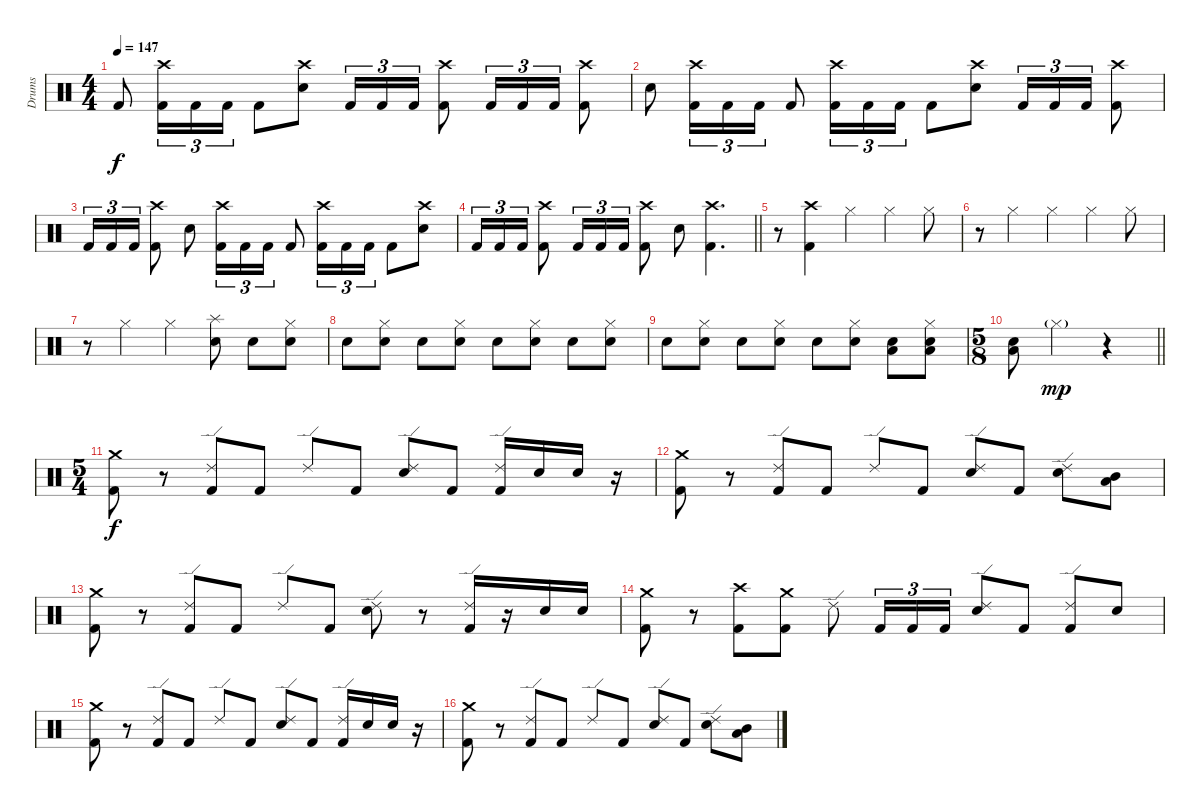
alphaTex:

\track ("Drums" "Drums") {instrument percussion}
\staff {score}
\articulation defaults
\ts (4 4)
\tempo 147
\clef neutral
\ks c "Kick (hit) 2".8{dy f}
("Crash high (hit)" "Kick (hit) 2").16{tu (3 2)} "Kick (hit) 2".16{tu (3 2)} "Kick (hit) 2".16{tu (3 2)} "Kick (hit) 2".8 ("Crash high (hit)" "Electric Snare (hit)").8 "Kick (hit) 2".16{tu (3 2)} "Kick (hit) 2".16{tu (3 2)} "Kick (hit) 2".16{tu (3 2)} ("Crash high (hit)" "Kick (hit) 2").8 "Kick (hit) 2".16{tu (3 2)} "Kick (hit) 2".16{tu (3 2)} "Kick (hit) 2".16{tu (3 2)} ("Crash high (hit)" "Kick (hit) 2").8 |
"Electric Snare (hit)".8 ("Crash high (hit)" "Kick (hit) 2").16{tu (3 2)} "Kick (hit) 2".16{tu (3 2)} "Kick (hit) 2".16{tu (3 2)} "Kick (hit) 2".8 ("Crash high (hit)" "Kick (hit) 2").16{tu (3 2)} "Kick (hit) 2".16{tu (3 2)} "Kick (hit) 2".16{tu (3 2)} "Kick (hit) 2".8 ("Crash high (hit)" "Electric Snare (hit)").8 "Kick (hit) 2".16{tu (3 2)} "Kick (hit) 2".16{tu (3 2)} "Kick (hit) 2".16{tu (3 2)} ("Crash high (hit)" "Kick (hit) 2").8 |
"Kick (hit) 2".16{tu (3 2)} "Kick (hit) 2".16{tu (3 2)} "Kick (hit) 2".16{tu (3 2)} ("Crash high (hit)" "Kick (hit) 2").8 "Electric Snare (hit)".8 ("Crash high (hit)" "Kick (hit) 2").16{tu (3 2)} "Kick (hit) 2".16{tu (3 2)} "Kick (hit) 2".16{tu (3 2)} "Kick (hit) 2".8 ("Crash high (hit)" "Kick (hit) 2").16{tu (3 2)} "Kick (hit) 2".16{tu (3 2)} "Kick (hit) 2".16{tu (3 2)} "Kick (hit) 2".8 ("Crash high (hit)" "Electric Snare (hit)").8 |
\barLineRight lightlight "Kick (hit) 2".16{tu (3 2)} "Kick (hit) 2".16{tu (3 2)} "Kick (hit) 2".16{tu (3 2)}
("Crash high (hit)" "Kick (hit) 2").8 "Kick (hit) 2".16{tu (3 2)} "Kick (hit) 2".16{tu (3 2)} "Kick (hit) 2".16{tu (3 2)} ("Crash high (hit)" "Kick (hit) 2").8 "Electric Snare (hit)".8 ("Crash high (hit)" "Kick (hit) 2").4{d} |
\section ("" "")
r.8 ("Crash high (hit)" "Kick (hit) 2").4 "Hi-Hat (closed)".4 "Hi-Hat (closed)".4 "Hi-Hat (closed)".8 |
r.8 "Hi-Hat (closed)".4 "Hi-Hat (closed)".4 "Hi-Hat (closed)".4 "Hi-Hat (closed)".8 |
r.8 "Hi-Hat (closed)".4 "Hi-Hat (closed)".4 ("Splash (hit)" "Electric Snare (hit)").8 "Electric Snare (hit)".8 ("Hi-Hat (closed)" "Electric Snare (hit)").8 |
"Electric Snare (hit)".8 ("Hi-Hat (closed)" "Electric Snare (hit)").8 "Electric Snare (hit)".8 ("Hi-Hat (closed)" "Electric Snare (hit)").8 "Electric Snare (hit)".8 ("Hi-Hat (closed)" "Electric Snare (hit)").8 "Electric Snare (hit)".8 ("Hi-Hat (closed)" "Electric Snare (hit)").8 |
"Electric Snare (hit)".8 ("Hi-Hat (closed)" "Electric Snare (hit)").8 "Electric Snare (hit)".8 ("Hi-Hat (closed)" "Electric Snare (hit)").8 "Electric Snare (hit)".8 ("Hi-Hat (closed)" "Electric Snare (hit)").8 ("Electric Snare (hit)" "Low Tom (hit)").8 ("Hi-Hat (closed)" "Electric Snare (hit)" "Low Tom (hit)").8 |
\ts (5 8)
\barLineRight lightlight
("Electric Snare (hit)" "Low Tom (hit)").8 "Hi-Hat (closed)"{g}.4{dy mp} r.4 |
\ts (5 4)
\section ("" "")
("Crash medium (hit)" "Kick (hit) 2").8{dy f} r.8 ("Ride (edge) 2" "Kick (hit) 2").8 "Kick (hit) 2".8 "Ride (edge) 2".8 "Kick (hit) 2".8 ("Ride (edge) 2" "Electric Snare (hit)").8 "Kick (hit) 2".8 ("Ride (edge) 2" "Kick (hit) 2").16 "Electric Snare (hit)".16 "Electric Snare (hit)".16 r.16 |
("Crash medium (hit)" "Kick (hit) 2").8 r.8 ("Ride (edge) 2" "Kick (hit) 2").8 "Kick (hit) 2".8 "Ride (edge) 2".8 "Kick (hit) 2".8 ("Ride (edge) 2" "Electric Snare (hit)").8 "Kick (hit) 2".8 ("Ride (edge) 2" "Electric Snare (hit)").8 ("Mid Tom (hit)" "Low Tom (hit)").8 |
("Crash medium (hit)" "Kick (hit) 2").8 r.8 ("Ride (edge) 2" "Kick (hit) 2").8 "Kick (hit) 2".8 "Ride (edge) 2".8 "Kick (hit) 2".8 ("Ride (edge) 2" "Electric Snare (hit)").8 r.8 ("Ride (edge) 2" "Kick (hit) 2").16 r.16 "Electric Snare (hit)".16 "Electric Snare (hit)".16 |
("Crash medium (hit)" "Kick (hit) 2").8 r.8 ("Crash high (hit)" "Kick (hit) 2").8 ("Crash medium (hit)" "Kick (hit) 2").8 "Ride (edge) 2".8 "Kick (hit) 2".16{tu (3 2)} "Kick (hit) 2".16{tu (3 2)} "Kick (hit) 2".16{tu (3 2)} ("Ride (edge) 2" "Electric Snare (hit)").8 "Kick (hit) 2".8 ("Ride (edge) 2" "Kick (hit) 2").8 "Electric Snare (hit)".8 |
("Crash medium (hit)" "Kick (hit) 2").8 r.8 ("Ride (edge) 2" "Kick (hit) 2").8 "Kick (hit) 2".8 "Ride (edge) 2".8 "Kick (hit) 2".8 ("Ride (edge) 2" "Electric Snare (hit)").8 "Kick (hit) 2".8 ("Ride (edge) 2" "Kick (hit) 2").16 "Electric Snare (hit)".16 "Electric Snare (hit)".16 r.16 |
("Crash medium (hit)" "Kick (hit) 2").8 r.8 ("Ride (edge) 2" "Kick (hit) 2").8 "Kick (hit) 2".8 "Ride (edge) 2".8 "Kick (hit) 2".8 ("Ride (edge) 2" "Electric Snare (hit)").8 "Kick (hit) 2".8 ("Ride (edge) 2" "Electric Snare (hit)").8 ("Mid Tom (hit)" "Low Tom (hit)").8
